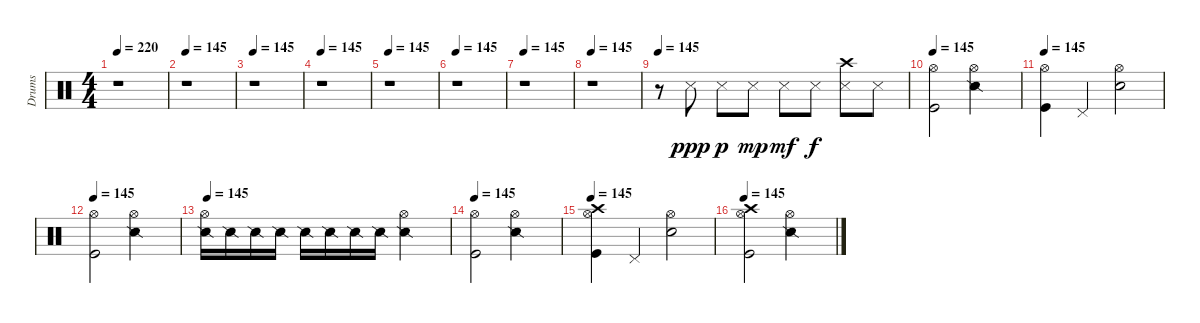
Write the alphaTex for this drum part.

\track ("Drums" "Drums") {instrument percussion}
\staff {score}
\articulation defaults
\ts (4 4)
\tempo 220
\tempo 145
\tempo 220
\clef neutral
\ks c
r.1{dy ppp} |
\tempo 145
r.1 |
\tempo 145
r.1 |
\tempo 145
r.1 |
\tempo 145
r.1 |
\tempo 145
r.1 |
\tempo 145
r.1 |
\tempo 145
r.1 |
\tempo 145
r.8 "Metronome (hit)".8{volume 12} "Metronome (hit)".8{dy p} "Metronome (hit)".8{dy mp} "Metronome (hit)".8{dy mf} "Metronome (hit)".8{dy f} ("Crash high (hit)" "Metronome (hit)").8 "Metronome (hit)".8 |
\tempo 145
("Hi-Hat (open)" "Kick (hit)").2 ("Hi-Hat (open)" "Snare (side stick) 2").2 |
\tempo 145
("Hi-Hat (open)" "Kick (hit)").4 "Pedal Hi-Hat (hit)".4 ("Hi-Hat (open)" "Snare (hit) 2").2 |
\tempo 145
("Hi-Hat (open)" "Kick (hit)").2 ("Hi-Hat (open)" "Snare (side stick) 2").2 |
\tempo 145
("Snare (side stick) 2" "Hi-Hat (open)").16 "Snare (side stick) 2".16 "Snare (side stick) 2".16 "Snare (side stick) 2".16 "Snare (side stick) 2".16 "Snare (side stick) 2".16 "Snare (side stick) 2".16 "Snare (side stick) 2".16 ("Hi-Hat (open)" "Snare (side stick) 2").2 |
\tempo 145
("Hi-Hat (open)" "Kick (hit)").2 ("Hi-Hat (open)" "Snare (side stick) 2").2 |
\tempo 145
("Hi-Hat (open)" "Crash high (hit)" "Kick (hit)").4 "Pedal Hi-Hat (hit)".4 ("Hi-Hat (open)" "Snare (hit) 2").2 |
\tempo 145
("Hi-Hat (open)" "Crash high (hit)" "Kick (hit)").2 ("Hi-Hat (open)" "Snare (side stick) 2").2
